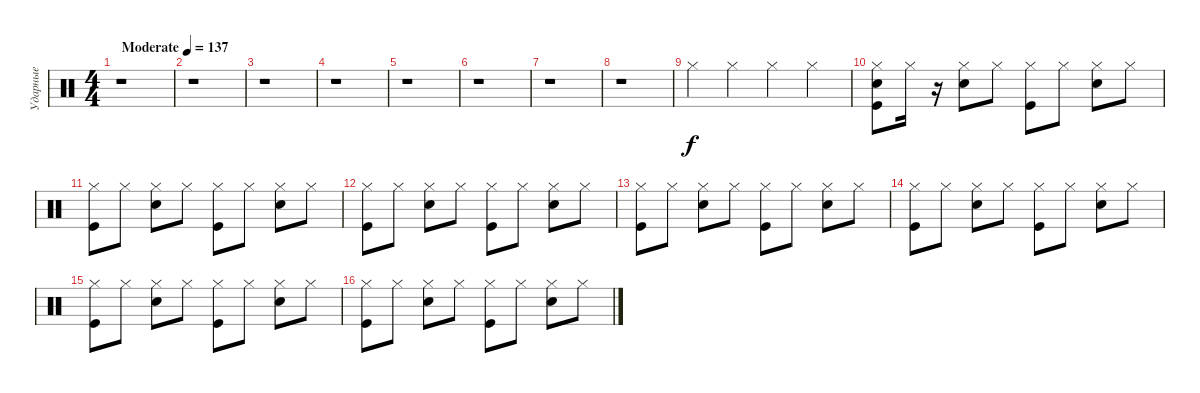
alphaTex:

\track ("Ударные" "Ударные") {instrument percussion}
\staff {score}
\articulation defaults
\ts (4 4)
\tempo (137 "Moderate")
\clef neutral
\ks c
r.1{dy f} |
r.1 |
r.1 |
r.1 |
r.1 |
r.1 |
r.1 |
r.1 |
"Hi-Hat (closed)".4 "Hi-Hat (closed)".4 "Hi-Hat (closed)".4 "Hi-Hat (closed)".4 |
("Hi-Hat (closed)" "Snare (hit) 2" "Kick (hit)").8 "Hi-Hat (closed)".16 r.16 ("Snare (hit) 2" "Hi-Hat (closed)").8 "Hi-Hat (closed)".8 ("Hi-Hat (closed)" "Kick (hit)").8 "Hi-Hat (closed)".8 ("Hi-Hat (closed)" "Snare (hit) 2").8 "Hi-Hat (closed)".8 |
("Hi-Hat (closed)" "Kick (hit)").8 "Hi-Hat (closed)".8 ("Hi-Hat (closed)" "Snare (hit) 2").8 "Hi-Hat (closed)".8 ("Hi-Hat (closed)" "Kick (hit)").8 "Hi-Hat (closed)".8 ("Hi-Hat (closed)" "Snare (hit) 2").8 "Hi-Hat (closed)".8 |
("Hi-Hat (closed)" "Kick (hit)").8 "Hi-Hat (closed)".8 ("Hi-Hat (closed)" "Snare (hit) 2").8 "Hi-Hat (closed)".8 ("Hi-Hat (closed)" "Kick (hit)").8 "Hi-Hat (closed)".8 ("Hi-Hat (closed)" "Snare (hit) 2").8 "Hi-Hat (closed)".8 |
("Hi-Hat (closed)" "Kick (hit)").8 "Hi-Hat (closed)".8 ("Hi-Hat (closed)" "Snare (hit) 2").8 "Hi-Hat (closed)".8 ("Hi-Hat (closed)" "Kick (hit)").8 "Hi-Hat (closed)".8 ("Hi-Hat (closed)" "Snare (hit) 2").8 "Hi-Hat (closed)".8 |
("Hi-Hat (closed)" "Kick (hit)").8 "Hi-Hat (closed)".8 ("Hi-Hat (closed)" "Snare (hit) 2").8 "Hi-Hat (closed)".8 ("Hi-Hat (closed)" "Kick (hit)").8 "Hi-Hat (closed)".8 ("Hi-Hat (closed)" "Snare (hit) 2").8 "Hi-Hat (closed)".8 |
("Hi-Hat (closed)" "Kick (hit)").8 "Hi-Hat (closed)".8 ("Hi-Hat (closed)" "Snare (hit) 2").8 "Hi-Hat (closed)".8 ("Hi-Hat (closed)" "Kick (hit)").8 "Hi-Hat (closed)".8 ("Hi-Hat (closed)" "Snare (hit) 2").8 "Hi-Hat (closed)".8 |
("Hi-Hat (closed)" "Kick (hit)").8 "Hi-Hat (closed)".8 ("Hi-Hat (closed)" "Snare (hit) 2").8 "Hi-Hat (closed)".8 ("Hi-Hat (closed)" "Kick (hit)").8 "Hi-Hat (closed)".8 ("Hi-Hat (closed)" "Snare (hit) 2").8 "Hi-Hat (closed)".8
